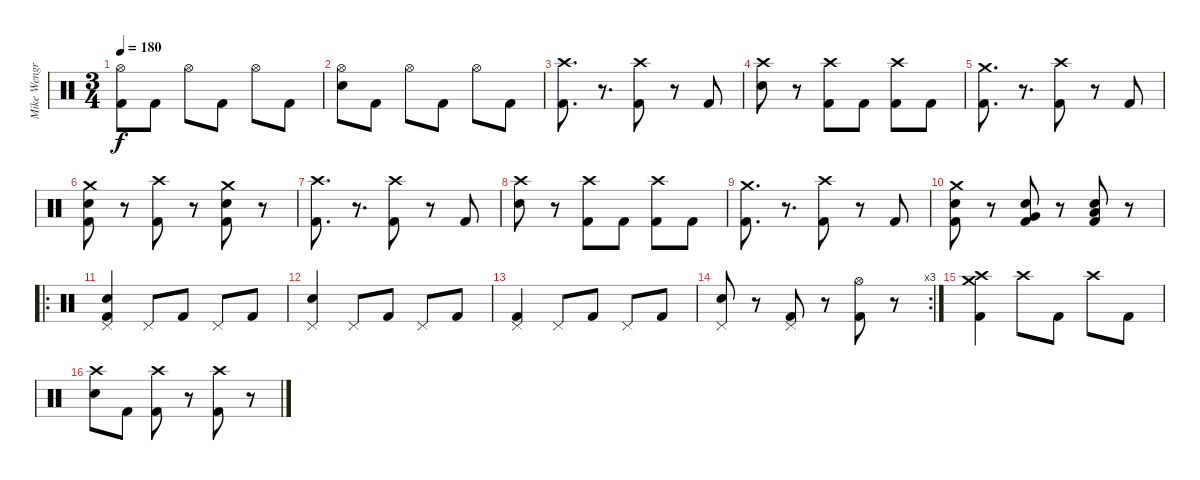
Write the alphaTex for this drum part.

\track ("Mike Wengren" "Mike Wengr") {instrument percussion}
\staff {score}
\articulation defaults
\ts (3 4)
\tempo 180
\clef neutral
\ks c
("Hi-Hat (open)" "Kick (hit) 2").8{dy f} "Kick (hit) 2".8 "Hi-Hat (open)".8 "Kick (hit) 2".8 "Hi-Hat (open)".8 "Kick (hit) 2".8 |
("Hi-Hat (open)" "Snare (hit) 2").8 "Kick (hit) 2".8 "Hi-Hat (open)".8 "Kick (hit) 2".8 "Hi-Hat (open)".8 "Kick (hit) 2".8 |
("Crash high (hit)" "Kick (hit) 2").8{d} r.8{d} ("Crash high (hit)" "Kick (hit) 2").8 r.8 "Kick (hit) 2".8 |
("Crash high (hit)" "Snare (hit) 2").8 r.8 ("Crash high (hit)" "Kick (hit) 2").8 "Kick (hit) 2".8 ("Crash high (hit)" "Kick (hit) 2").8 "Kick (hit) 2".8 |
("Crash medium (hit)" "Kick (hit) 2").8{d} r.8{d} ("Crash high (hit)" "Kick (hit) 2").8 r.8 "Kick (hit) 2".8 |
("Crash medium (hit)" "Snare (hit) 2" "Kick (hit) 2").8 r.8 ("Crash high (hit)" "Kick (hit) 2").8 r.8 ("Crash medium (hit)" "Snare (hit) 2" "Kick (hit) 2").8 r.8 |
("Crash high (hit)" "Kick (hit) 2").8{d} r.8{d} ("Crash high (hit)" "Kick (hit) 2").8 r.8 "Kick (hit) 2".8 |
("Crash high (hit)" "Snare (hit) 2").8 r.8 ("Crash high (hit)" "Kick (hit) 2").8 "Kick (hit) 2".8 ("Crash high (hit)" "Kick (hit) 2").8 "Kick (hit) 2".8 |
("Crash medium (hit)" "Kick (hit) 2").8{d} r.8{d} ("Crash high (hit)" "Kick (hit) 2").8 r.8 "Kick (hit) 2".8 |
("Crash medium (hit)" "Snare (hit) 2" "Kick (hit) 2").8 r.8 ("Very Low Tom (hit)" "Snare (hit) 2" "Kick (hit) 2").8 r.8 ("Low Floor Tom (hit)" "Snare (hit) 2" "Kick (hit) 2").8 r.8 |
\ro
("Pedal Hi-Hat (hit)" "Snare (hit) 2" "Kick (hit) 2").4 "Pedal Hi-Hat (hit)".8 "Kick (hit) 2".8 "Pedal Hi-Hat (hit)".8 "Kick (hit) 2".8 |
("Pedal Hi-Hat (hit)" "Snare (hit) 2").4 "Pedal Hi-Hat (hit)".8 "Kick (hit) 2".8 "Pedal Hi-Hat (hit)".8 "Kick (hit) 2".8 |
("Pedal Hi-Hat (hit)" "Kick (hit) 2").4 "Pedal Hi-Hat (hit)".8 "Kick (hit) 2".8 "Pedal Hi-Hat (hit)".8 "Kick (hit) 2".8 |
\rc 3
("Pedal Hi-Hat (hit)" "Snare (hit) 2").8 r.8 ("Pedal Hi-Hat (hit)" "Kick (hit) 2").8 r.8 ("Hi-Hat (open)" "Kick (hit) 2").8 r.8 |
("Crash medium (hit)" "Crash high (hit)" "Kick (hit) 2").4 "Crash high (hit)".8 "Kick (hit) 2".8 "Crash high (hit)".8 "Kick (hit) 2".8 |
("Crash high (hit)" "Snare (hit) 2").8 "Kick (hit) 2".8 ("Crash high (hit)" "Kick (hit) 2").8 r.8 ("Crash high (hit)" "Kick (hit) 2").8 r.8
